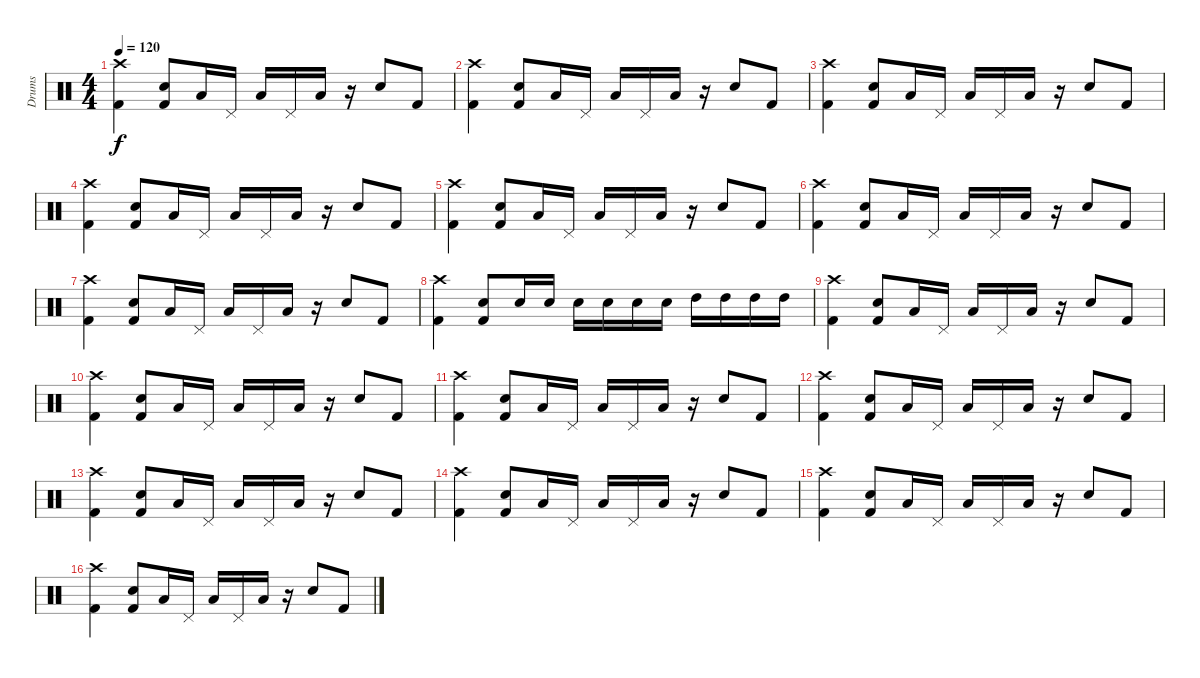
\track ("Drums" "Drums") {instrument percussion}
\staff {score}
\articulation defaults
\ts (4 4)
\tempo 120
\clef neutral
\ks c
("Crash high (hit)" "Kick (hit) 2").4{dy f} ("Electric Snare (hit)" "Kick (hit) 2").8 "Low Tom (hit)".16 "Pedal Hi-Hat (hit)".16 "Low Tom (hit)".16 "Pedal Hi-Hat (hit)".16 "Low Tom (hit)".16 r.16 "Electric Snare (hit)".8 "Kick (hit) 2".8 |
("Crash high (hit)" "Kick (hit) 2").4 ("Electric Snare (hit)" "Kick (hit) 2").8 "Low Tom (hit)".16 "Pedal Hi-Hat (hit)".16 "Low Tom (hit)".16 "Pedal Hi-Hat (hit)".16 "Low Tom (hit)".16 r.16 "Electric Snare (hit)".8 "Kick (hit) 2".8 |
("Crash high (hit)" "Kick (hit) 2").4 ("Electric Snare (hit)" "Kick (hit) 2").8 "Low Tom (hit)".16 "Pedal Hi-Hat (hit)".16 "Low Tom (hit)".16 "Pedal Hi-Hat (hit)".16 "Low Tom (hit)".16 r.16 "Electric Snare (hit)".8 "Kick (hit) 2".8 |
("Crash high (hit)" "Kick (hit) 2").4 ("Electric Snare (hit)" "Kick (hit) 2").8 "Low Tom (hit)".16 "Pedal Hi-Hat (hit)".16 "Low Tom (hit)".16 "Pedal Hi-Hat (hit)".16 "Low Tom (hit)".16 r.16 "Electric Snare (hit)".8 "Kick (hit) 2".8 |
("Crash high (hit)" "Kick (hit) 2").4 ("Electric Snare (hit)" "Kick (hit) 2").8 "Low Tom (hit)".16 "Pedal Hi-Hat (hit)".16 "Low Tom (hit)".16 "Pedal Hi-Hat (hit)".16 "Low Tom (hit)".16 r.16 "Electric Snare (hit)".8 "Kick (hit) 2".8 |
("Crash high (hit)" "Kick (hit) 2").4 ("Electric Snare (hit)" "Kick (hit) 2").8 "Low Tom (hit)".16 "Pedal Hi-Hat (hit)".16 "Low Tom (hit)".16 "Pedal Hi-Hat (hit)".16 "Low Tom (hit)".16 r.16 "Electric Snare (hit)".8 "Kick (hit) 2".8 |
("Crash high (hit)" "Kick (hit) 2").4 ("Electric Snare (hit)" "Kick (hit) 2").8 "Low Tom (hit)".16 "Pedal Hi-Hat (hit)".16 "Low Tom (hit)".16 "Pedal Hi-Hat (hit)".16 "Low Tom (hit)".16 r.16 "Electric Snare (hit)".8 "Kick (hit) 2".8 |
("Crash high (hit)" "Kick (hit) 2").4 ("Electric Snare (hit)" "Kick (hit) 2").8 "Electric Snare (hit)".16 "Electric Snare (hit)".16 "Electric Snare (hit)".16 "Electric Snare (hit)".16 "Electric Snare (hit)".16 "Electric Snare (hit)".16 "High Tom (hit)".16 "High Tom (hit)".16 "High Tom (hit)".16 "High Tom (hit)".16 |
("Crash high (hit)" "Kick (hit) 2").4 ("Electric Snare (hit)" "Kick (hit) 2").8 "Low Tom (hit)".16 "Pedal Hi-Hat (hit)".16 "Low Tom (hit)".16 "Pedal Hi-Hat (hit)".16 "Low Tom (hit)".16 r.16 "Electric Snare (hit)".8 "Kick (hit) 2".8 |
("Crash high (hit)" "Kick (hit) 2").4 ("Electric Snare (hit)" "Kick (hit) 2").8 "Low Tom (hit)".16 "Pedal Hi-Hat (hit)".16 "Low Tom (hit)".16 "Pedal Hi-Hat (hit)".16 "Low Tom (hit)".16 r.16 "Electric Snare (hit)".8 "Kick (hit) 2".8 |
("Crash high (hit)" "Kick (hit) 2").4 ("Electric Snare (hit)" "Kick (hit) 2").8 "Low Tom (hit)".16 "Pedal Hi-Hat (hit)".16 "Low Tom (hit)".16 "Pedal Hi-Hat (hit)".16 "Low Tom (hit)".16 r.16 "Electric Snare (hit)".8 "Kick (hit) 2".8 |
("Crash high (hit)" "Kick (hit) 2").4 ("Electric Snare (hit)" "Kick (hit) 2").8 "Low Tom (hit)".16 "Pedal Hi-Hat (hit)".16 "Low Tom (hit)".16 "Pedal Hi-Hat (hit)".16 "Low Tom (hit)".16 r.16 "Electric Snare (hit)".8 "Kick (hit) 2".8 |
("Crash high (hit)" "Kick (hit) 2").4 ("Electric Snare (hit)" "Kick (hit) 2").8 "Low Tom (hit)".16 "Pedal Hi-Hat (hit)".16 "Low Tom (hit)".16 "Pedal Hi-Hat (hit)".16 "Low Tom (hit)".16 r.16 "Electric Snare (hit)".8 "Kick (hit) 2".8 |
("Crash high (hit)" "Kick (hit) 2").4 ("Electric Snare (hit)" "Kick (hit) 2").8 "Low Tom (hit)".16 "Pedal Hi-Hat (hit)".16 "Low Tom (hit)".16 "Pedal Hi-Hat (hit)".16 "Low Tom (hit)".16 r.16 "Electric Snare (hit)".8 "Kick (hit) 2".8 |
("Crash high (hit)" "Kick (hit) 2").4 ("Electric Snare (hit)" "Kick (hit) 2").8 "Low Tom (hit)".16 "Pedal Hi-Hat (hit)".16 "Low Tom (hit)".16 "Pedal Hi-Hat (hit)".16 "Low Tom (hit)".16 r.16 "Electric Snare (hit)".8 "Kick (hit) 2".8 |
("Crash high (hit)" "Kick (hit) 2").4 ("Electric Snare (hit)" "Kick (hit) 2").8 "Low Tom (hit)".16 "Pedal Hi-Hat (hit)".16 "Low Tom (hit)".16 "Pedal Hi-Hat (hit)".16 "Low Tom (hit)".16 r.16 "Electric Snare (hit)".8 "Kick (hit) 2".8
